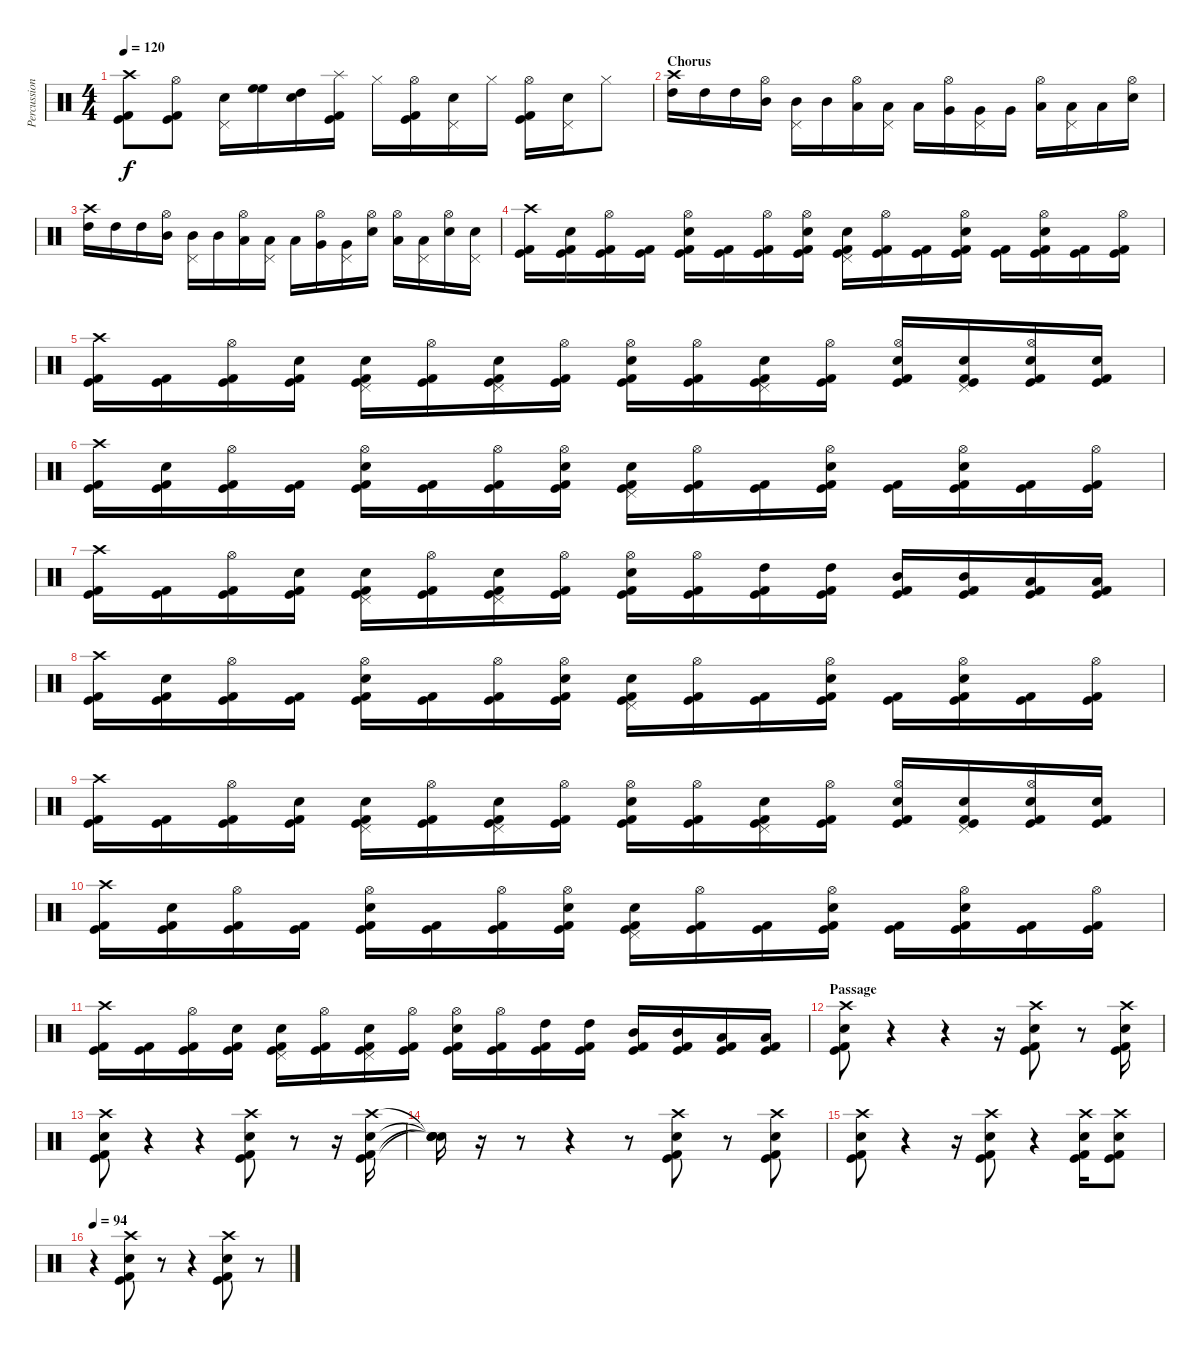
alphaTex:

\track ("Percussion" "Percussion") {instrument percussion}
\staff {score}
\articulation defaults
\ts (4 4)
\tempo 120
\clef neutral
\ks c
("Crash high (hit)" "Kick (hit) 2" "Kick (hit)").8{dy f} ("Hi-Hat (open)" "Kick (hit) 2" "Kick (hit)").8 ("Pedal Hi-Hat (hit)" "Snare (hit) 2").16 ("High Floor Tom (hit)" "High Floor Tom (hit)").16 ("Snare (hit) 2" "High Tom (hit)").16 ("Splash (hit)" "Kick (hit) 2" "Kick (hit)").16 "Hi-Hat (closed)".16 ("Hi-Hat (open)" "Kick (hit) 2" "Kick (hit)").16 ("Pedal Hi-Hat (hit)" "Snare (hit) 2").16 "Hi-Hat (closed)".16 ("Hi-Hat (open)" "Kick (hit) 2" "Kick (hit)").16 ("Pedal Hi-Hat (hit)" "Snare (hit) 2").16 "Hi-Hat (closed)".8 |
\section ("" "Chorus")
("Crash high (hit)" "High Tom (hit)").16 "High Tom (hit)".16 "High Tom (hit)".16 ("Hi-Hat (open)" "Mid Tom (hit)").16 ("Pedal Hi-Hat (hit)" "Mid Tom (hit)").16 "Mid Tom (hit)".16 ("Hi-Hat (open)" "Low Tom (hit)").16 ("Pedal Hi-Hat (hit)" "Low Tom (hit)").16 "Low Tom (hit)".16 ("Hi-Hat (open)" "Very Low Tom (hit)").16 ("Pedal Hi-Hat (hit)" "Very Low Tom (hit)").16 "Very Low Tom (hit)".16 ("Hi-Hat (open)" "Low Floor Tom (hit)").16 ("Pedal Hi-Hat (hit)" "Low Floor Tom (hit)").16 "Low Floor Tom (hit)".16 ("Hi-Hat (open)" "Electric Snare (hit)").16 |
("Crash high (hit)" "High Tom (hit)").16 "High Tom (hit)".16 "High Tom (hit)".16 ("Hi-Hat (open)" "Mid Tom (hit)").16 ("Pedal Hi-Hat (hit)" "Mid Tom (hit)").16 "Mid Tom (hit)".16 ("Hi-Hat (open)" "Low Tom (hit)").16 ("Pedal Hi-Hat (hit)" "Low Tom (hit)").16 "Low Tom (hit)".16 ("Hi-Hat (open)" "Very Low Tom (hit)").16 ("Pedal Hi-Hat (hit)" "Very Low Tom (hit)").16 ("Hi-Hat (open)" "Electric Snare (hit)").16 ("Hi-Hat (open)" "Low Floor Tom (hit)").16 ("Pedal Hi-Hat (hit)" "Low Floor Tom (hit)").16 ("Hi-Hat (open)" "Electric Snare (hit)").16 ("Pedal Hi-Hat (hit)" "Electric Snare (hit)").16 |
("Crash high (hit)" "Kick (hit) 2" "Kick (hit)").16 ("Snare (hit) 2" "Kick (hit) 2" "Kick (hit)").16 ("Hi-Hat (open)" "Kick (hit) 2" "Kick (hit)").16 ("Kick (hit) 2" "Kick (hit)").16 ("Hi-Hat (open)" "Snare (hit) 2" "Kick (hit) 2" "Kick (hit)").16 ("Kick (hit) 2" "Kick (hit)").16 ("Hi-Hat (open)" "Kick (hit) 2" "Kick (hit)").16 ("Hi-Hat (open)" "Snare (hit) 2" "Kick (hit) 2" "Kick (hit)").16 ("Pedal Hi-Hat (hit)" "Snare (hit) 2" "Kick (hit) 2" "Kick (hit)").16 ("Hi-Hat (open)" "Kick (hit) 2" "Kick (hit)").16 ("Kick (hit) 2" "Kick (hit)").16 ("Hi-Hat (open)" "Snare (hit) 2" "Kick (hit) 2" "Kick (hit)").16 ("Kick (hit) 2" "Kick (hit)").16 ("Hi-Hat (open)" "Snare (hit) 2" "Kick (hit) 2" "Kick (hit)").16 ("Kick (hit) 2" "Kick (hit)").16 ("Hi-Hat (open)" "Kick (hit) 2" "Kick (hit)").16 |
("Crash high (hit)" "Kick (hit) 2" "Kick (hit)").16 ("Kick (hit) 2" "Kick (hit)").16 ("Hi-Hat (open)" "Kick (hit) 2" "Kick (hit)").16 ("Snare (hit) 2" "Kick (hit) 2" "Kick (hit)").16 ("Pedal Hi-Hat (hit)" "Snare (hit) 2" "Kick (hit) 2" "Kick (hit)").16 ("Hi-Hat (open)" "Kick (hit) 2" "Kick (hit)").16 ("Pedal Hi-Hat (hit)" "Snare (hit) 2" "Kick (hit) 2" "Kick (hit)").16 ("Hi-Hat (open)" "Kick (hit) 2" "Kick (hit)").16 ("Hi-Hat (open)" "Snare (hit) 2" "Kick (hit) 2" "Kick (hit)").16 ("Hi-Hat (open)" "Kick (hit) 2" "Kick (hit)").16 ("Pedal Hi-Hat (hit)" "Snare (hit) 2" "Kick (hit) 2" "Kick (hit)").16 ("Hi-Hat (open)" "Kick (hit) 2" "Kick (hit)").16 ("Hi-Hat (open)" "Snare (hit) 2" "Kick (hit) 2" "Kick (hit)").16 ("Pedal Hi-Hat (hit)" "Snare (hit) 2" "Kick (hit) 2" "Kick (hit)").16 ("Hi-Hat (open)" "Snare (hit) 2" "Kick (hit) 2" "Kick (hit)").16 ("Snare (hit) 2" "Kick (hit) 2" "Kick (hit)").16 |
("Crash high (hit)" "Kick (hit) 2" "Kick (hit)").16 ("Snare (hit) 2" "Kick (hit) 2" "Kick (hit)").16 ("Hi-Hat (open)" "Kick (hit) 2" "Kick (hit)").16 ("Kick (hit) 2" "Kick (hit)").16 ("Hi-Hat (open)" "Snare (hit) 2" "Kick (hit) 2" "Kick (hit)").16 ("Kick (hit) 2" "Kick (hit)").16 ("Hi-Hat (open)" "Kick (hit) 2" "Kick (hit)").16 ("Hi-Hat (open)" "Snare (hit) 2" "Kick (hit) 2" "Kick (hit)").16 ("Pedal Hi-Hat (hit)" "Snare (hit) 2" "Kick (hit) 2" "Kick (hit)").16 ("Hi-Hat (open)" "Kick (hit) 2" "Kick (hit)").16 ("Kick (hit) 2" "Kick (hit)").16 ("Hi-Hat (open)" "Snare (hit) 2" "Kick (hit) 2" "Kick (hit)").16 ("Kick (hit) 2" "Kick (hit)").16 ("Hi-Hat (open)" "Snare (hit) 2" "Kick (hit) 2" "Kick (hit)").16 ("Kick (hit) 2" "Kick (hit)").16 ("Hi-Hat (open)" "Kick (hit) 2" "Kick (hit)").16 |
("Crash high (hit)" "Kick (hit) 2" "Kick (hit)").16 ("Kick (hit) 2" "Kick (hit)").16 ("Hi-Hat (open)" "Kick (hit) 2" "Kick (hit)").16 ("Snare (hit) 2" "Kick (hit) 2" "Kick (hit)").16 ("Pedal Hi-Hat (hit)" "Snare (hit) 2" "Kick (hit) 2" "Kick (hit)").16 ("Hi-Hat (open)" "Kick (hit) 2" "Kick (hit)").16 ("Pedal Hi-Hat (hit)" "Snare (hit) 2" "Kick (hit) 2" "Kick (hit)").16 ("Hi-Hat (open)" "Kick (hit) 2" "Kick (hit)").16 ("Hi-Hat (open)" "Snare (hit) 2" "Kick (hit) 2" "Kick (hit)").16 ("Hi-Hat (open)" "Kick (hit) 2" "Kick (hit)").16 ("High Tom (hit)" "Kick (hit) 2" "Kick (hit)").16 ("High Tom (hit)" "Kick (hit) 2" "Kick (hit)").16 ("Mid Tom (hit)" "Kick (hit) 2" "Kick (hit)").16 ("Mid Tom (hit)" "Kick (hit) 2" "Kick (hit)").16 ("Low Tom (hit)" "Kick (hit) 2" "Kick (hit)").16 ("Low Tom (hit)" "Kick (hit) 2" "Kick (hit)").16 |
("Crash high (hit)" "Kick (hit) 2" "Kick (hit)").16 ("Snare (hit) 2" "Kick (hit) 2" "Kick (hit)").16 ("Hi-Hat (open)" "Kick (hit) 2" "Kick (hit)").16 ("Kick (hit) 2" "Kick (hit)").16 ("Hi-Hat (open)" "Snare (hit) 2" "Kick (hit) 2" "Kick (hit)").16 ("Kick (hit) 2" "Kick (hit)").16 ("Hi-Hat (open)" "Kick (hit) 2" "Kick (hit)").16 ("Hi-Hat (open)" "Snare (hit) 2" "Kick (hit) 2" "Kick (hit)").16 ("Pedal Hi-Hat (hit)" "Snare (hit) 2" "Kick (hit) 2" "Kick (hit)").16 ("Hi-Hat (open)" "Kick (hit) 2" "Kick (hit)").16 ("Kick (hit) 2" "Kick (hit)").16 ("Hi-Hat (open)" "Snare (hit) 2" "Kick (hit) 2" "Kick (hit)").16 ("Kick (hit) 2" "Kick (hit)").16 ("Hi-Hat (open)" "Snare (hit) 2" "Kick (hit) 2" "Kick (hit)").16 ("Kick (hit) 2" "Kick (hit)").16 ("Hi-Hat (open)" "Kick (hit) 2" "Kick (hit)").16 |
("Crash high (hit)" "Kick (hit) 2" "Kick (hit)").16 ("Kick (hit) 2" "Kick (hit)").16 ("Hi-Hat (open)" "Kick (hit) 2" "Kick (hit)").16 ("Snare (hit) 2" "Kick (hit) 2" "Kick (hit)").16 ("Pedal Hi-Hat (hit)" "Snare (hit) 2" "Kick (hit) 2" "Kick (hit)").16 ("Hi-Hat (open)" "Kick (hit) 2" "Kick (hit)").16 ("Pedal Hi-Hat (hit)" "Snare (hit) 2" "Kick (hit) 2" "Kick (hit)").16 ("Hi-Hat (open)" "Kick (hit) 2" "Kick (hit)").16 ("Hi-Hat (open)" "Snare (hit) 2" "Kick (hit) 2" "Kick (hit)").16 ("Hi-Hat (open)" "Kick (hit) 2" "Kick (hit)").16 ("Pedal Hi-Hat (hit)" "Snare (hit) 2" "Kick (hit) 2" "Kick (hit)").16 ("Hi-Hat (open)" "Kick (hit) 2" "Kick (hit)").16 ("Hi-Hat (open)" "Snare (hit) 2" "Kick (hit) 2" "Kick (hit)").16 ("Pedal Hi-Hat (hit)" "Snare (hit) 2" "Kick (hit) 2" "Kick (hit)").16 ("Hi-Hat (open)" "Snare (hit) 2" "Kick (hit) 2" "Kick (hit)").16 ("Snare (hit) 2" "Kick (hit) 2" "Kick (hit)").16 |
("Crash high (hit)" "Kick (hit) 2" "Kick (hit)").16 ("Snare (hit) 2" "Kick (hit) 2" "Kick (hit)").16 ("Hi-Hat (open)" "Kick (hit) 2" "Kick (hit)").16 ("Kick (hit) 2" "Kick (hit)").16 ("Hi-Hat (open)" "Snare (hit) 2" "Kick (hit) 2" "Kick (hit)").16 ("Kick (hit) 2" "Kick (hit)").16 ("Hi-Hat (open)" "Kick (hit) 2" "Kick (hit)").16 ("Hi-Hat (open)" "Snare (hit) 2" "Kick (hit) 2" "Kick (hit)").16 ("Pedal Hi-Hat (hit)" "Snare (hit) 2" "Kick (hit) 2" "Kick (hit)").16 ("Hi-Hat (open)" "Kick (hit) 2" "Kick (hit)").16 ("Kick (hit) 2" "Kick (hit)").16 ("Hi-Hat (open)" "Snare (hit) 2" "Kick (hit) 2" "Kick (hit)").16 ("Kick (hit) 2" "Kick (hit)").16 ("Hi-Hat (open)" "Snare (hit) 2" "Kick (hit) 2" "Kick (hit)").16 ("Kick (hit) 2" "Kick (hit)").16 ("Hi-Hat (open)" "Kick (hit) 2" "Kick (hit)").16 |
("Crash high (hit)" "Kick (hit) 2" "Kick (hit)").16 ("Kick (hit) 2" "Kick (hit)").16 ("Hi-Hat (open)" "Kick (hit) 2" "Kick (hit)").16 ("Snare (hit) 2" "Kick (hit) 2" "Kick (hit)").16 ("Pedal Hi-Hat (hit)" "Snare (hit) 2" "Kick (hit) 2" "Kick (hit)").16 ("Hi-Hat (open)" "Kick (hit) 2" "Kick (hit)").16 ("Pedal Hi-Hat (hit)" "Snare (hit) 2" "Kick (hit) 2" "Kick (hit)").16 ("Hi-Hat (open)" "Kick (hit) 2" "Kick (hit)").16 ("Hi-Hat (open)" "Snare (hit) 2" "Kick (hit) 2" "Kick (hit)").16 ("Hi-Hat (open)" "Kick (hit) 2" "Kick (hit)").16 ("High Tom (hit)" "Kick (hit) 2" "Kick (hit)").16 ("High Tom (hit)" "Kick (hit) 2" "Kick (hit)").16 ("Mid Tom (hit)" "Kick (hit) 2" "Kick (hit)").16 ("Mid Tom (hit)" "Kick (hit) 2" "Kick (hit)").16 ("Low Tom (hit)" "Kick (hit) 2" "Kick (hit)").16 ("Low Tom (hit)" "Kick (hit) 2" "Kick (hit)").16 |
\section ("" "Passage")
("Crash high (hit)" "Snare (hit) 2" "Kick (hit) 2" "Kick (hit)").8 r.4 r.4 r.16 ("Crash high (hit)" "Snare (hit) 2" "Kick (hit) 2" "Kick (hit)").8 r.8 ("Crash high (hit)" "Snare (hit) 2" "Kick (hit) 2" "Kick (hit)").16 |
("Crash high (hit)" "Snare (hit) 2" "Kick (hit) 2" "Kick (hit)").8 r.4 r.4 ("Crash high (hit)" "Snare (hit) 2" "Kick (hit) 2" "Kick (hit)").8 r.8 r.16 ("Crash high (hit)" "Snare (hit) 2" "Kick (hit) 2" "Kick (hit)").16 |
("Snare (hit)"{t} "Snare (hit)"{t} "Snare (hit)"{t} "Snare (hit)"{t}).16 r.16 r.8 r.4 r.8 ("Crash high (hit)" "Snare (hit) 2" "Kick (hit) 2" "Kick (hit)").8 r.8 ("Crash high (hit)" "Snare (hit) 2" "Kick (hit) 2" "Kick (hit)").8 |
("Crash high (hit)" "Snare (hit) 2" "Kick (hit) 2" "Kick (hit)").8 r.4 r.16 ("Crash high (hit)" "Snare (hit) 2" "Kick (hit) 2" "Kick (hit)").8 r.4 ("Crash high (hit)" "Snare (hit) 2" "Kick (hit) 2" "Kick (hit)").16 ("Crash high (hit)" "Snare (hit) 2" "Kick (hit) 2" "Kick (hit)").8 |
\tempo 94
r.4 ("Crash high (hit)" "Snare (hit) 2" "Kick (hit) 2" "Kick (hit)").8 r.8 r.4 ("Crash high (hit)" "Snare (hit) 2" "Kick (hit) 2" "Kick (hit)").8 r.8
